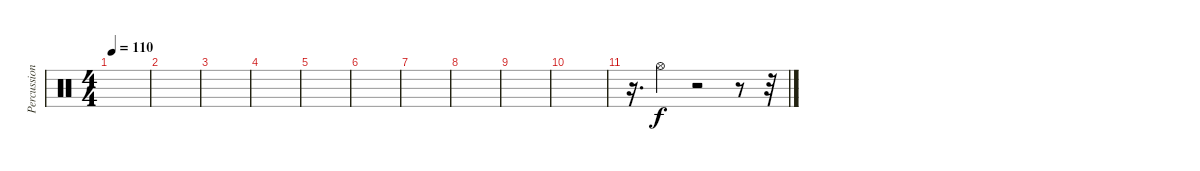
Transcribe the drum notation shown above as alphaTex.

\track ("Percussion" "Percussion") {instrument percussion}
\staff {score}
\articulation defaults
\ts (4 4)
\tempo 110
\clef neutral
\ks c
|
|
|
|
|
|
|
|
|
|
r.16{d} "Hi-Hat (open)".4 r.2 r.8 r.32
